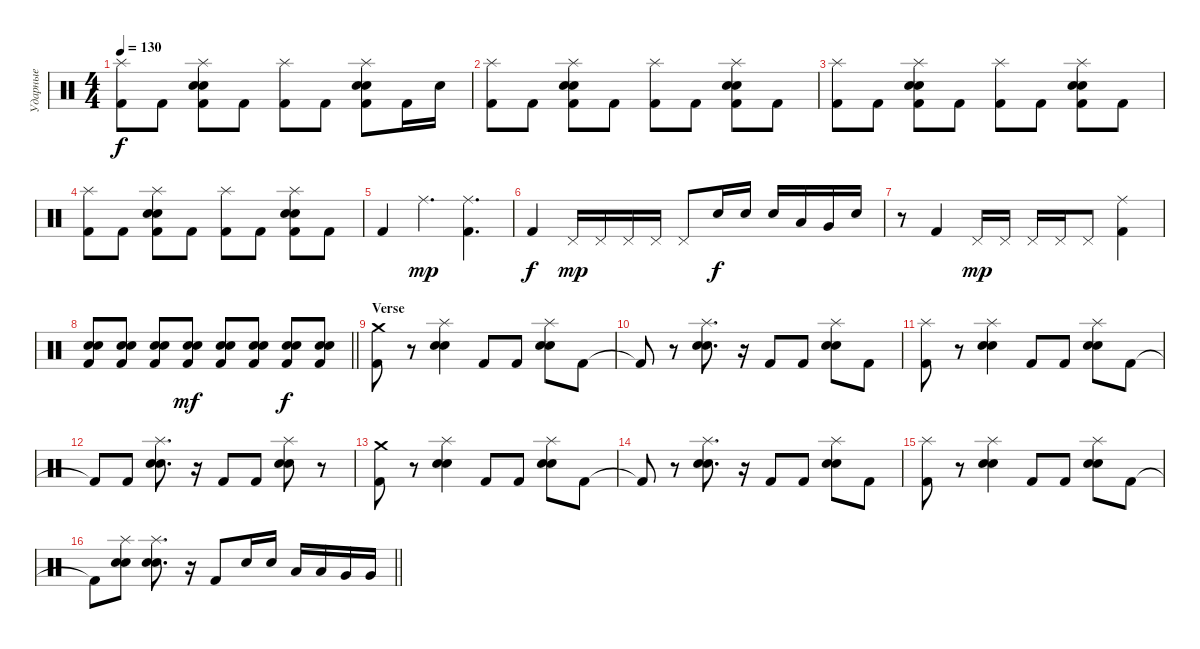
\track ("Ударные" "Ударные") {instrument percussion}
\staff {score}
\articulation defaults
\ts (4 4)
\tempo 130
\clef neutral
\ks c
("Splash (hit)" "Kick (hit) 2").8{dy f} "Kick (hit) 2".8 ("Splash (hit)" "Electric Snare (hit)" "Snare (hit) 2" "Kick (hit) 2").8 "Kick (hit) 2".8 ("Splash (hit)" "Kick (hit) 2").8 "Kick (hit) 2".8 ("Splash (hit)" "Electric Snare (hit)" "Snare (hit) 2" "Kick (hit) 2").8 "Kick (hit) 2".16 "Electric Snare (hit)".16 |
("Splash (hit)" "Kick (hit) 2").8 "Kick (hit) 2".8 ("Splash (hit)" "Electric Snare (hit)" "Snare (hit) 2" "Kick (hit) 2").8 "Kick (hit) 2".8 ("Splash (hit)" "Kick (hit) 2").8 "Kick (hit) 2".8 ("Splash (hit)" "Electric Snare (hit)" "Snare (hit) 2" "Kick (hit) 2").8 "Kick (hit) 2".8 |
("Splash (hit)" "Kick (hit) 2").8 "Kick (hit) 2".8 ("Splash (hit)" "Electric Snare (hit)" "Snare (hit) 2" "Kick (hit) 2").8 "Kick (hit) 2".8 ("Splash (hit)" "Kick (hit) 2").8 "Kick (hit) 2".8 ("Splash (hit)" "Electric Snare (hit)" "Snare (hit) 2" "Kick (hit) 2").8 "Kick (hit) 2".8 |
("Splash (hit)" "Kick (hit) 2").8 "Kick (hit) 2".8 ("Splash (hit)" "Electric Snare (hit)" "Snare (hit) 2" "Kick (hit) 2").8 "Kick (hit) 2".8 ("Splash (hit)" "Kick (hit) 2").8 "Kick (hit) 2".8 ("Splash (hit)" "Electric Snare (hit)" "Snare (hit) 2" "Kick (hit) 2").8 "Kick (hit) 2".8 |
"Kick (hit) 2".4 "Ride (middle)".4{d dy mp} ("Ride (middle)" "Kick (hit) 2").4{d} |
"Kick (hit) 2".4{dy f} "Pedal Hi-Hat (hit)".16{dy mp} "Pedal Hi-Hat (hit)".16 "Pedal Hi-Hat (hit)".16 "Pedal Hi-Hat (hit)".16 "Pedal Hi-Hat (hit)".8 "Electric Snare (hit)".16{dy f} "Electric Snare (hit)".16 "Electric Snare (hit)".16 "Low Tom (hit)".16 "Very Low Tom (hit)".16 "Electric Snare (hit)".16 |
r.8 "Kick (hit) 2".4 "Pedal Hi-Hat (hit)".16{dy mp} "Pedal Hi-Hat (hit)".16 "Pedal Hi-Hat (hit)".16 "Pedal Hi-Hat (hit)".16 "Pedal Hi-Hat (hit)".8 ("Ride (middle)" "Kick (hit) 2").4 |
\barLineRight lightlight
("Electric Snare (hit)" "Snare (hit) 2" "Kick (hit) 2").8 ("Electric Snare (hit)" "Snare (hit) 2" "Kick (hit) 2").8 ("Electric Snare (hit)" "Snare (hit) 2" "Kick (hit) 2").8 ("Electric Snare (hit)" "Snare (hit) 2" "Kick (hit) 2").8{dy mf} ("Electric Snare (hit)" "Snare (hit) 2" "Kick (hit) 2").8 ("Electric Snare (hit)" "Snare (hit) 2" "Kick (hit) 2").8 ("Electric Snare (hit)" "Snare (hit) 2" "Kick (hit) 2").8{dy f} ("Electric Snare (hit)" "Snare (hit) 2" "Kick (hit) 2").8 |
\section ("" "Verse")
("Crash medium (hit)" "Kick (hit) 2").8 r.8 ("Splash (hit)" "Electric Snare (hit)" "Snare (hit) 2").4 "Kick (hit) 2".8 "Kick (hit) 2".8 ("Splash (hit)" "Electric Snare (hit)" "Snare (hit) 2").8 "Kick (hit) 2".8 |
"Kick (hit) 2"{t}.8 r.8 ("Splash (hit)" "Electric Snare (hit)" "Snare (hit) 2").8{d} r.16 "Kick (hit) 2".8 "Kick (hit) 2".8 ("Splash (hit)" "Electric Snare (hit)" "Snare (hit) 2").8 "Kick (hit) 2".8 |
("Splash (hit)" "Kick (hit) 2").8 r.8 ("Splash (hit)" "Electric Snare (hit)" "Snare (hit) 2").4 "Kick (hit) 2".8 "Kick (hit) 2".8 ("Splash (hit)" "Electric Snare (hit)" "Snare (hit) 2").8 "Kick (hit) 2".8 |
"Kick (hit) 2"{t}.8 "Kick (hit) 2".8 ("Splash (hit)" "Electric Snare (hit)" "Snare (hit) 2").8{d} r.16 "Kick (hit) 2".8 "Kick (hit) 2".8 ("Splash (hit)" "Electric Snare (hit)" "Snare (hit) 2").8 r.8 |
("Crash medium (hit)" "Kick (hit) 2").8 r.8 ("Splash (hit)" "Electric Snare (hit)" "Snare (hit) 2").4 "Kick (hit) 2".8 "Kick (hit) 2".8 ("Splash (hit)" "Electric Snare (hit)" "Snare (hit) 2").8 "Kick (hit) 2".8 |
"Kick (hit) 2"{t}.8 r.8 ("Splash (hit)" "Electric Snare (hit)" "Snare (hit) 2").8{d} r.16 "Kick (hit) 2".8 "Kick (hit) 2".8 ("Splash (hit)" "Electric Snare (hit)" "Snare (hit) 2").8 "Kick (hit) 2".8 |
("Splash (hit)" "Kick (hit) 2").8 r.8 ("Splash (hit)" "Electric Snare (hit)" "Snare (hit) 2").4 "Kick (hit) 2".8 "Kick (hit) 2".8 ("Splash (hit)" "Electric Snare (hit)" "Snare (hit) 2").8 "Kick (hit) 2".8 |
\barLineRight lightlight "Kick (hit) 2"{t}.8
("Splash (hit)" "Electric Snare (hit)" "Snare (hit) 2").8 ("Splash (hit)" "Electric Snare (hit)" "Snare (hit) 2").8{d} r.16 "Kick (hit) 2".8 "Electric Snare (hit)".16 "Electric Snare (hit)".16 "Low Tom (hit)".16 "Low Tom (hit)".16 "Very Low Tom (hit)".16 "Very Low Tom (hit)".16
